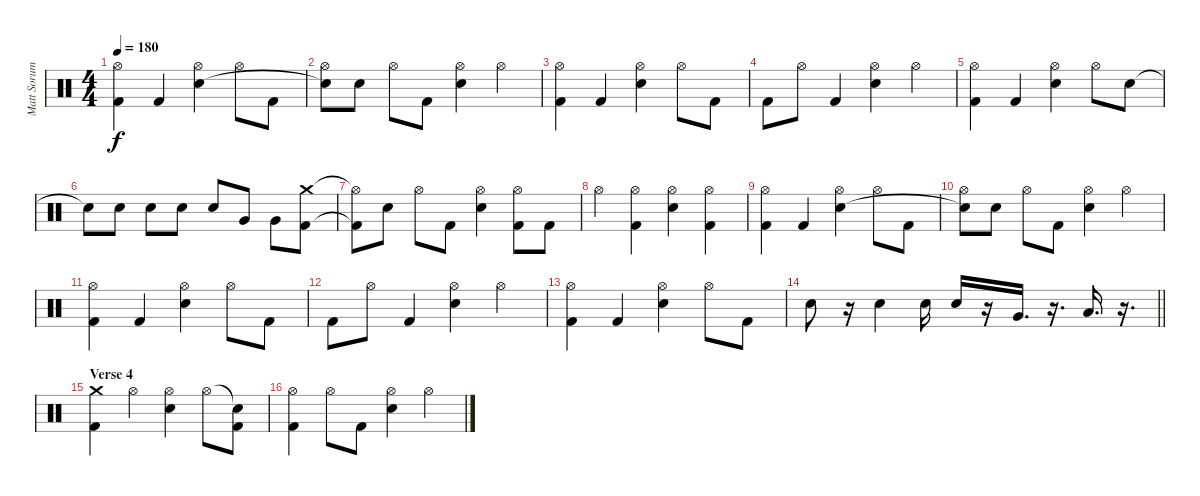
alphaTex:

\track ("Matt Sorum" "Matt Sorum") {instrument percussion}
\staff {score}
\articulation defaults
\ts (4 4)
\tempo 180
\clef neutral
\ks c
("Hi-Hat (open)" "Kick (hit) 2").4{dy f} "Kick (hit) 2".4 ("Hi-Hat (open)" "Electric Snare (hit)").4 "Hi-Hat (open)".8 "Kick (hit) 2".8 |
("Hi-Hat (open)" "Snare (hit)"{t}).8 "Electric Snare (hit)".8 "Hi-Hat (open)".8 "Kick (hit) 2".8 ("Hi-Hat (open)" "Electric Snare (hit)").4 "Hi-Hat (open)".4 |
("Hi-Hat (open)" "Kick (hit) 2").4 "Kick (hit) 2".4 ("Hi-Hat (open)" "Electric Snare (hit)").4 "Hi-Hat (open)".8 "Kick (hit) 2".8 |
"Kick (hit) 2".8 "Hi-Hat (open)".8 "Kick (hit) 2".4 ("Hi-Hat (open)" "Electric Snare (hit)").4 "Hi-Hat (open)".4 |
("Hi-Hat (open)" "Kick (hit) 2").4 "Kick (hit) 2".4 ("Hi-Hat (open)" "Electric Snare (hit)").4 "Hi-Hat (open)".8 "Electric Snare (hit)".8 |
"Electric Snare (hit)"{t}.8 "Electric Snare (hit)".8 "Electric Snare (hit)".8 "Electric Snare (hit)".8 "Electric Snare (hit)".8 "Very Low Tom (hit)".8 "Very Low Tom (hit)".8 ("Crash medium (hit)" "Kick (hit) 2").8 |
("Hi-Hat (open)"{t} "Kick (hit) 2"{t}).8 "Electric Snare (hit)".8 "Hi-Hat (open)".8 "Kick (hit) 2".8 ("Hi-Hat (open)" "Electric Snare (hit)").4 ("Hi-Hat (open)" "Kick (hit) 2").8 "Kick (hit) 2".8 |
"Hi-Hat (open)".4 ("Hi-Hat (open)" "Kick (hit) 2").4 ("Hi-Hat (open)" "Electric Snare (hit)").4 ("Hi-Hat (open)" "Kick (hit) 2").4 |
("Hi-Hat (open)" "Kick (hit) 2").4 "Kick (hit) 2".4 ("Hi-Hat (open)" "Electric Snare (hit)").4 "Hi-Hat (open)".8 "Kick (hit) 2".8 |
("Hi-Hat (open)" "Snare (hit)"{t}).8 "Electric Snare (hit)".8 "Hi-Hat (open)".8 "Kick (hit) 2".8 ("Hi-Hat (open)" "Electric Snare (hit)").4 "Hi-Hat (open)".4 |
("Hi-Hat (open)" "Kick (hit) 2").4 "Kick (hit) 2".4 ("Hi-Hat (open)" "Electric Snare (hit)").4 "Hi-Hat (open)".8 "Kick (hit) 2".8 |
"Kick (hit) 2".8 "Hi-Hat (open)".8 "Kick (hit) 2".4 ("Hi-Hat (open)" "Electric Snare (hit)").4 "Hi-Hat (open)".4 |
("Hi-Hat (open)" "Kick (hit) 2").4 "Kick (hit) 2".4 ("Hi-Hat (open)" "Electric Snare (hit)").4 "Hi-Hat (open)".8 "Kick (hit) 2".8 |
\barLineRight lightlight "Electric Snare (hit)".8
r.16 "Electric Snare (hit)".4 "Electric Snare (hit)".16 "Electric Snare (hit)".16 r.16 "Very Low Tom (hit)".16{d} r.16{d} "Low Floor Tom (hit)".16{d} r.16{d} |
\section ("" "Verse 4")
("Crash medium (hit)" "Kick (hit) 2").4 "Hi-Hat (open)".4 ("Hi-Hat (open)" "Electric Snare (hit)").4 "Hi-Hat (open)".8 ("Snare (hit)"{t} "Kick (hit) 2").8 |
("Hi-Hat (open)" "Kick (hit) 2").4 "Hi-Hat (open)".8 "Kick (hit) 2".8 ("Hi-Hat (open)" "Electric Snare (hit)").4 "Hi-Hat (open)".4
